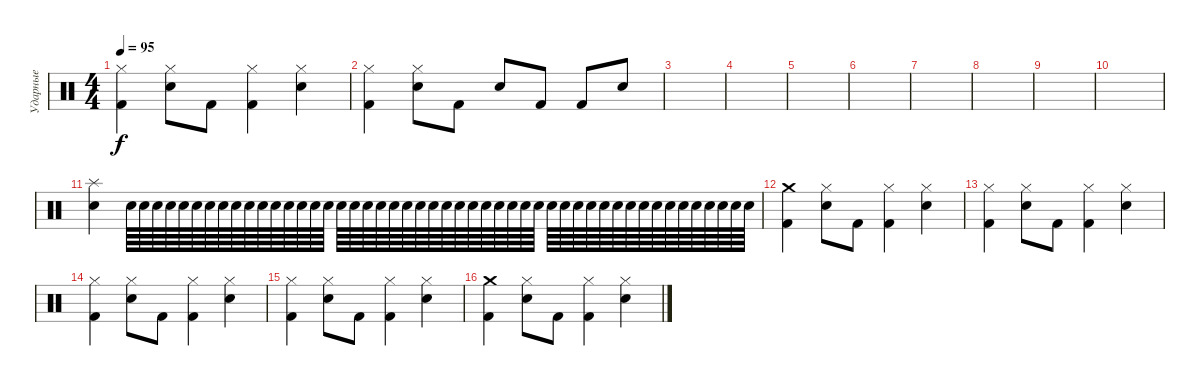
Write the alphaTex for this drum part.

\track ("Ударные" "Ударные") {instrument percussion}
\staff {score}
\articulation defaults
\ts (4 4)
\tempo 95
\clef neutral
\ks c
("Hi-Hat (closed)" "Kick (hit) 2").4{dy f} ("Hi-Hat (closed)" "Snare (hit) 2").8 "Kick (hit) 2".8 ("Hi-Hat (closed)" "Kick (hit) 2").4 ("Hi-Hat (closed)" "Snare (hit) 2").4 |
("Hi-Hat (closed)" "Kick (hit) 2").4 ("Hi-Hat (closed)" "Snare (hit) 2").8 "Kick (hit) 2".8 "Snare (hit) 2".8 "Kick (hit) 2".8 "Kick (hit) 2".8 "Snare (hit) 2".8 |
|
|
|
|
|
|
|
|
("Splash (hit)" "Snare (hit) 2").4 "Snare (hit) 2".64 "Snare (hit) 2".64 "Snare (hit) 2".64 "Snare (hit) 2".64 "Snare (hit) 2".64 "Snare (hit) 2".64 "Snare (hit) 2".64 "Snare (hit) 2".64 "Snare (hit) 2".64 "Snare (hit) 2".64 "Snare (hit) 2".64 "Snare (hit) 2".64 "Snare (hit) 2".64 "Snare (hit) 2".64 "Snare (hit) 2".64 "Snare (hit) 2".64 "Snare (hit) 2".64 "Snare (hit) 2".64 "Snare (hit) 2".64 "Snare (hit) 2".64 "Snare (hit) 2".64 "Snare (hit) 2".64 "Snare (hit) 2".64 "Snare (hit) 2".64 "Snare (hit) 2".64 "Snare (hit) 2".64 "Snare (hit) 2".64 "Snare (hit) 2".64 "Snare (hit) 2".64 "Snare (hit) 2".64 "Snare (hit) 2".64 "Snare (hit) 2".64 "Snare (hit) 2".64 "Snare (hit) 2".64 "Snare (hit) 2".64 "Snare (hit) 2".64 "Snare (hit) 2".64 "Snare (hit) 2".64 "Snare (hit) 2".64 "Snare (hit) 2".64 "Snare (hit) 2".64 "Snare (hit) 2".64 "Snare (hit) 2".64 "Snare (hit) 2".64 "Snare (hit) 2".64 "Snare (hit) 2".64 "Snare (hit) 2".64 "Snare (hit) 2".64 |
("Crash medium (hit)" "Kick (hit) 2").4 ("Hi-Hat (closed)" "Snare (hit) 2").8 "Kick (hit) 2".8 ("Hi-Hat (closed)" "Kick (hit) 2").4 ("Hi-Hat (closed)" "Snare (hit) 2").4 |
("Hi-Hat (closed)" "Kick (hit) 2").4 ("Hi-Hat (closed)" "Snare (hit) 2").8 "Kick (hit) 2".8 ("Hi-Hat (closed)" "Kick (hit) 2").4 ("Hi-Hat (closed)" "Snare (hit) 2").4 |
("Hi-Hat (closed)" "Kick (hit) 2").4 ("Hi-Hat (closed)" "Snare (hit) 2").8 "Kick (hit) 2".8 ("Hi-Hat (closed)" "Kick (hit) 2").4 ("Hi-Hat (closed)" "Snare (hit) 2").4 |
("Hi-Hat (closed)" "Kick (hit) 2").4 ("Hi-Hat (closed)" "Snare (hit) 2").8 "Kick (hit) 2".8 ("Hi-Hat (closed)" "Kick (hit) 2").4 ("Hi-Hat (closed)" "Snare (hit) 2").4 |
("Crash medium (hit)" "Kick (hit) 2").4 ("Hi-Hat (closed)" "Snare (hit) 2").8 "Kick (hit) 2".8 ("Hi-Hat (closed)" "Kick (hit) 2").4 ("Hi-Hat (closed)" "Snare (hit) 2").4
